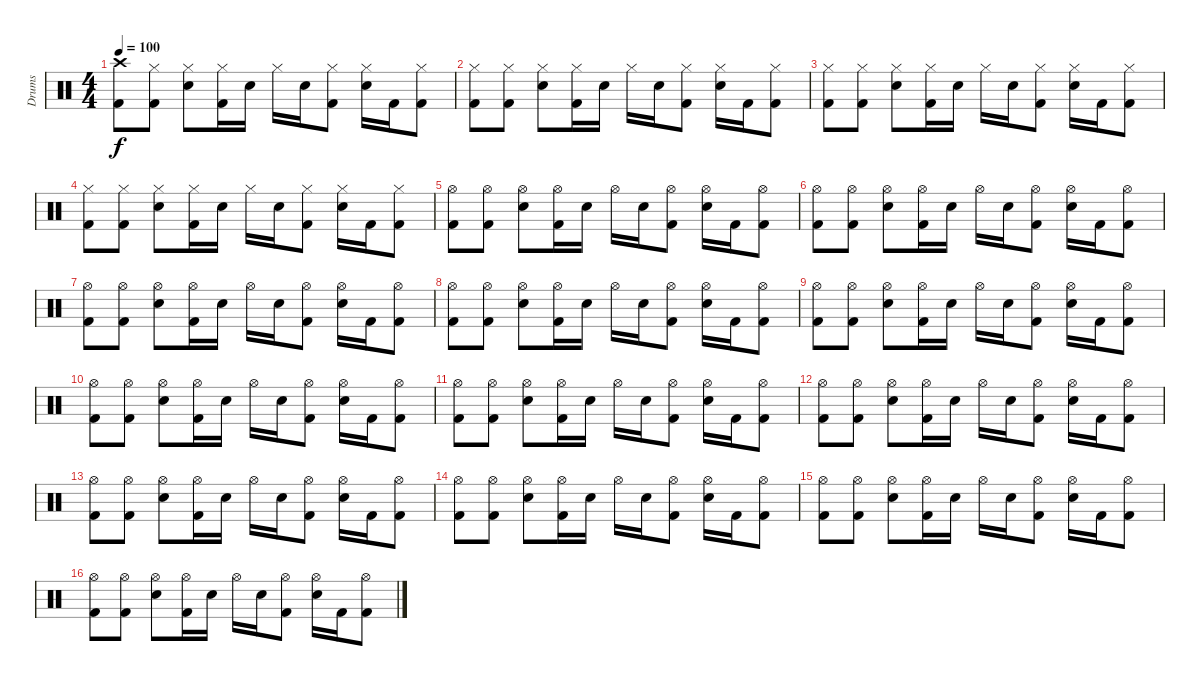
\track ("Drums" "Drums") {instrument percussion}
\staff {score}
\articulation defaults
\ts (4 4)
\tempo 100
\clef neutral
\ks c
("Crash high (hit)" "Kick (hit) 2").8{dy f} ("Hi-Hat (closed)" "Kick (hit) 2").8 ("Hi-Hat (closed)" "Snare (hit) 2").8 ("Hi-Hat (closed)" "Kick (hit) 2").16 "Snare (hit) 2".16 "Hi-Hat (closed)".16 "Snare (hit) 2".16 ("Hi-Hat (closed)" "Kick (hit) 2").8 ("Hi-Hat (closed)" "Snare (hit) 2").16 "Kick (hit) 2".16 ("Hi-Hat (closed)" "Kick (hit) 2").8 |
("Hi-Hat (closed)" "Kick (hit) 2").8 ("Hi-Hat (closed)" "Kick (hit) 2").8 ("Hi-Hat (closed)" "Snare (hit) 2").8 ("Hi-Hat (closed)" "Kick (hit) 2").16 "Snare (hit) 2".16 "Hi-Hat (closed)".16 "Snare (hit) 2".16 ("Hi-Hat (closed)" "Kick (hit) 2").8 ("Hi-Hat (closed)" "Snare (hit) 2").16 "Kick (hit) 2".16 ("Hi-Hat (closed)" "Kick (hit) 2").8 |
("Hi-Hat (closed)" "Kick (hit) 2").8 ("Hi-Hat (closed)" "Kick (hit) 2").8 ("Hi-Hat (closed)" "Snare (hit) 2").8 ("Hi-Hat (closed)" "Kick (hit) 2").16 "Snare (hit) 2".16 "Hi-Hat (closed)".16 "Snare (hit) 2".16 ("Hi-Hat (closed)" "Kick (hit) 2").8 ("Hi-Hat (closed)" "Snare (hit) 2").16 "Kick (hit) 2".16 ("Hi-Hat (closed)" "Kick (hit) 2").8 |
("Hi-Hat (closed)" "Kick (hit) 2").8 ("Hi-Hat (closed)" "Kick (hit) 2").8 ("Hi-Hat (closed)" "Snare (hit) 2").8 ("Hi-Hat (closed)" "Kick (hit) 2").16 "Snare (hit) 2".16 "Hi-Hat (closed)".16 "Snare (hit) 2".16 ("Hi-Hat (closed)" "Kick (hit) 2").8 ("Hi-Hat (closed)" "Snare (hit) 2").16 "Kick (hit) 2".16 ("Hi-Hat (closed)" "Kick (hit) 2").8 |
("Hi-Hat (open)" "Kick (hit) 2").8 ("Hi-Hat (open)" "Kick (hit) 2").8 ("Hi-Hat (open)" "Snare (hit) 2").8 ("Hi-Hat (open)" "Kick (hit) 2").16 "Snare (hit) 2".16 "Hi-Hat (open)".16 "Snare (hit) 2".16 ("Hi-Hat (open)" "Kick (hit) 2").8 ("Hi-Hat (open)" "Snare (hit) 2").16 "Kick (hit) 2".16 ("Hi-Hat (open)" "Kick (hit) 2").8 |
("Hi-Hat (open)" "Kick (hit) 2").8 ("Hi-Hat (open)" "Kick (hit) 2").8 ("Hi-Hat (open)" "Snare (hit) 2").8 ("Hi-Hat (open)" "Kick (hit) 2").16 "Snare (hit) 2".16 "Hi-Hat (open)".16 "Snare (hit) 2".16 ("Hi-Hat (open)" "Kick (hit) 2").8 ("Hi-Hat (open)" "Snare (hit) 2").16 "Kick (hit) 2".16 ("Hi-Hat (open)" "Kick (hit) 2").8 |
("Hi-Hat (open)" "Kick (hit) 2").8 ("Hi-Hat (open)" "Kick (hit) 2").8 ("Hi-Hat (open)" "Snare (hit) 2").8 ("Hi-Hat (open)" "Kick (hit) 2").16 "Snare (hit) 2".16 "Hi-Hat (open)".16 "Snare (hit) 2".16 ("Hi-Hat (open)" "Kick (hit) 2").8 ("Hi-Hat (open)" "Snare (hit) 2").16 "Kick (hit) 2".16 ("Hi-Hat (open)" "Kick (hit) 2").8 |
("Hi-Hat (open)" "Kick (hit) 2").8 ("Hi-Hat (open)" "Kick (hit) 2").8 ("Hi-Hat (open)" "Snare (hit) 2").8 ("Hi-Hat (open)" "Kick (hit) 2").16 "Snare (hit) 2".16 "Hi-Hat (open)".16 "Snare (hit) 2".16 ("Hi-Hat (open)" "Kick (hit) 2").8 ("Hi-Hat (open)" "Snare (hit) 2").16 "Kick (hit) 2".16 ("Hi-Hat (open)" "Kick (hit) 2").8 |
("Hi-Hat (open)" "Kick (hit) 2").8 ("Hi-Hat (open)" "Kick (hit) 2").8 ("Hi-Hat (open)" "Snare (hit) 2").8 ("Hi-Hat (open)" "Kick (hit) 2").16 "Snare (hit) 2".16 "Hi-Hat (open)".16 "Snare (hit) 2".16 ("Hi-Hat (open)" "Kick (hit) 2").8 ("Hi-Hat (open)" "Snare (hit) 2").16 "Kick (hit) 2".16 ("Hi-Hat (open)" "Kick (hit) 2").8 |
("Hi-Hat (open)" "Kick (hit) 2").8 ("Hi-Hat (open)" "Kick (hit) 2").8 ("Hi-Hat (open)" "Snare (hit) 2").8 ("Hi-Hat (open)" "Kick (hit) 2").16 "Snare (hit) 2".16 "Hi-Hat (open)".16 "Snare (hit) 2".16 ("Hi-Hat (open)" "Kick (hit) 2").8 ("Hi-Hat (open)" "Snare (hit) 2").16 "Kick (hit) 2".16 ("Hi-Hat (open)" "Kick (hit) 2").8 |
("Hi-Hat (open)" "Kick (hit) 2").8 ("Hi-Hat (open)" "Kick (hit) 2").8 ("Hi-Hat (open)" "Snare (hit) 2").8 ("Hi-Hat (open)" "Kick (hit) 2").16 "Snare (hit) 2".16 "Hi-Hat (open)".16 "Snare (hit) 2".16 ("Hi-Hat (open)" "Kick (hit) 2").8 ("Hi-Hat (open)" "Snare (hit) 2").16 "Kick (hit) 2".16 ("Hi-Hat (open)" "Kick (hit) 2").8 |
("Hi-Hat (open)" "Kick (hit) 2").8 ("Hi-Hat (open)" "Kick (hit) 2").8 ("Hi-Hat (open)" "Snare (hit) 2").8 ("Hi-Hat (open)" "Kick (hit) 2").16 "Snare (hit) 2".16 "Hi-Hat (open)".16 "Snare (hit) 2".16 ("Hi-Hat (open)" "Kick (hit) 2").8 ("Hi-Hat (open)" "Snare (hit) 2").16 "Kick (hit) 2".16 ("Hi-Hat (open)" "Kick (hit) 2").8 |
("Hi-Hat (open)" "Kick (hit) 2").8 ("Hi-Hat (open)" "Kick (hit) 2").8 ("Hi-Hat (open)" "Snare (hit) 2").8 ("Hi-Hat (open)" "Kick (hit) 2").16 "Snare (hit) 2".16 "Hi-Hat (open)".16 "Snare (hit) 2".16 ("Hi-Hat (open)" "Kick (hit) 2").8 ("Hi-Hat (open)" "Snare (hit) 2").16 "Kick (hit) 2".16 ("Hi-Hat (open)" "Kick (hit) 2").8 |
("Hi-Hat (open)" "Kick (hit) 2").8 ("Hi-Hat (open)" "Kick (hit) 2").8 ("Hi-Hat (open)" "Snare (hit) 2").8 ("Hi-Hat (open)" "Kick (hit) 2").16 "Snare (hit) 2".16 "Hi-Hat (open)".16 "Snare (hit) 2".16 ("Hi-Hat (open)" "Kick (hit) 2").8 ("Hi-Hat (open)" "Snare (hit) 2").16 "Kick (hit) 2".16 ("Hi-Hat (open)" "Kick (hit) 2").8 |
("Hi-Hat (open)" "Kick (hit) 2").8 ("Hi-Hat (open)" "Kick (hit) 2").8 ("Hi-Hat (open)" "Snare (hit) 2").8 ("Hi-Hat (open)" "Kick (hit) 2").16 "Snare (hit) 2".16 "Hi-Hat (open)".16 "Snare (hit) 2".16 ("Hi-Hat (open)" "Kick (hit) 2").8 ("Hi-Hat (open)" "Snare (hit) 2").16 "Kick (hit) 2".16 ("Hi-Hat (open)" "Kick (hit) 2").8 |
("Hi-Hat (open)" "Kick (hit) 2").8 ("Hi-Hat (open)" "Kick (hit) 2").8 ("Hi-Hat (open)" "Snare (hit) 2").8 ("Hi-Hat (open)" "Kick (hit) 2").16 "Snare (hit) 2".16 "Hi-Hat (open)".16 "Snare (hit) 2".16 ("Hi-Hat (open)" "Kick (hit) 2").8 ("Hi-Hat (open)" "Snare (hit) 2").16 "Kick (hit) 2".16 ("Hi-Hat (open)" "Kick (hit) 2").8
